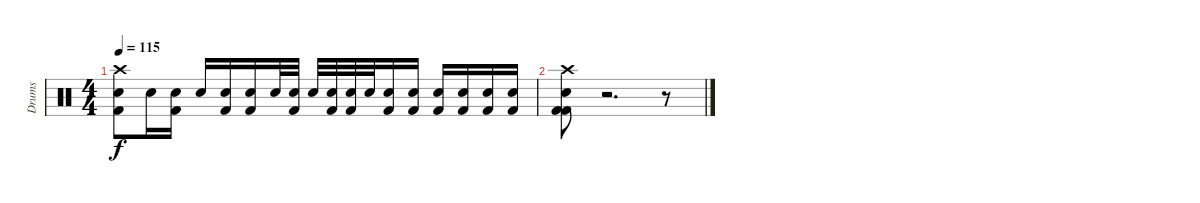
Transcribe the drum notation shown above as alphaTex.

\track ("Drums" "Drums") {instrument percussion}
\staff {score}
\articulation defaults
\ts (4 4)
\tempo 115
\clef neutral
\ks c
("Crash high (hit)" "Electric Snare (hit)" "Kick (hit) 2").8{dy f} "Electric Snare (hit)".16 ("Electric Snare (hit)" "Kick (hit) 2").16 "Electric Snare (hit)".16 ("Electric Snare (hit)" "Kick (hit) 2").16 ("Electric Snare (hit)" "Kick (hit) 2").16 "Electric Snare (hit)".32 ("Electric Snare (hit)" "Kick (hit) 2").32 "Electric Snare (hit)".32 ("Electric Snare (hit)" "Kick (hit) 2").32 ("Electric Snare (hit)" "Kick (hit) 2").32 "Electric Snare (hit)".32 ("Electric Snare (hit)" "Kick (hit) 2").16 ("Electric Snare (hit)" "Kick (hit) 2").16 ("Electric Snare (hit)" "Kick (hit) 2").16 ("Electric Snare (hit)" "Kick (hit) 2").16 ("Electric Snare (hit)" "Kick (hit) 2").16 ("Electric Snare (hit)" "Kick (hit) 2").16 |
("Crash high (hit)" "Electric Snare (hit)" "Kick (hit) 2" "Kick (hit) 2").8 r.2{d} r.8
